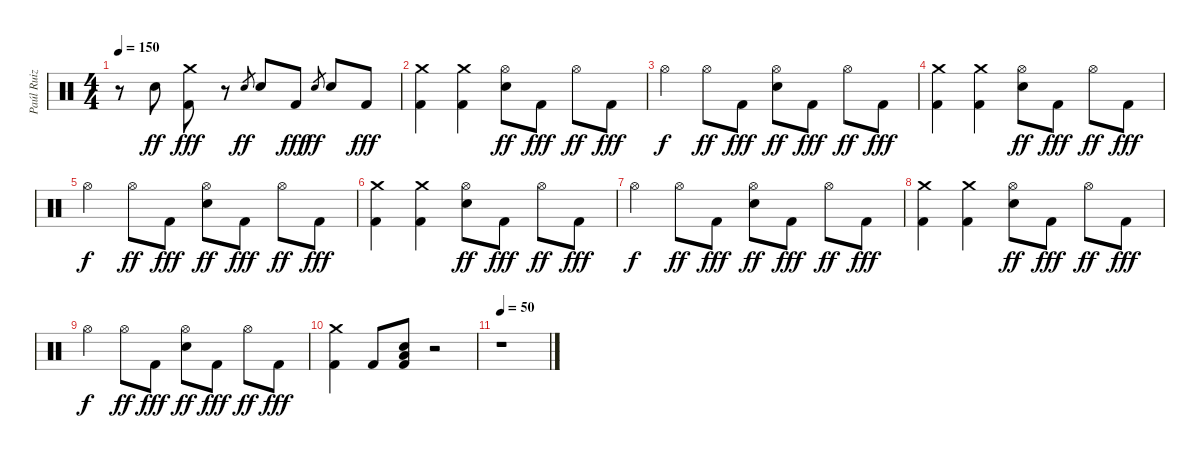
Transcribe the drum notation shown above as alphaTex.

\track ("Paúl Ruiz" "Paúl Ruiz") {instrument percussion}
\staff {score}
\articulation defaults
\ts (4 4)
\tempo 150
\clef neutral
\ks c
r.8{dy fff} "Snare (hit) 2".8{dy ff} ("Crash medium (hit)" "Kick (hit) 2").8{dy fff} r.8 "Snare (hit) 2".8{gr dy ff} "Snare (hit) 2".8 "Kick (hit) 2".8{dy fff} "Snare (hit) 2".8{gr dy ff} "Snare (hit) 2".8 "Kick (hit) 2".8{dy fff} |
("Crash medium (hit)" "Kick (hit) 2").4 ("Crash medium (hit)" "Kick (hit) 2").4 ("Hi-Hat (open)" "Snare (hit) 2").8{dy ff} "Kick (hit) 2".8{dy fff} "Hi-Hat (open)".8{dy ff} "Kick (hit) 2".8{dy fff} |
"Hi-Hat (open)".4{dy f} "Hi-Hat (open)".8{dy ff} "Kick (hit) 2".8{dy fff} ("Hi-Hat (open)" "Snare (hit) 2").8{dy ff} "Kick (hit) 2".8{dy fff} "Hi-Hat (open)".8{dy ff} "Kick (hit) 2".8{dy fff} |
("Crash medium (hit)" "Kick (hit) 2").4 ("Crash medium (hit)" "Kick (hit) 2").4 ("Hi-Hat (open)" "Snare (hit) 2").8{dy ff} "Kick (hit) 2".8{dy fff} "Hi-Hat (open)".8{dy ff} "Kick (hit) 2".8{dy fff} |
"Hi-Hat (open)".4{dy f} "Hi-Hat (open)".8{dy ff} "Kick (hit) 2".8{dy fff} ("Hi-Hat (open)" "Snare (hit) 2").8{dy ff} "Kick (hit) 2".8{dy fff} "Hi-Hat (open)".8{dy ff} "Kick (hit) 2".8{dy fff} |
("Crash medium (hit)" "Kick (hit) 2").4 ("Crash medium (hit)" "Kick (hit) 2").4 ("Hi-Hat (open)" "Snare (hit) 2").8{dy ff} "Kick (hit) 2".8{dy fff} "Hi-Hat (open)".8{dy ff} "Kick (hit) 2".8{dy fff} |
"Hi-Hat (open)".4{dy f} "Hi-Hat (open)".8{dy ff} "Kick (hit) 2".8{dy fff} ("Hi-Hat (open)" "Snare (hit) 2").8{dy ff} "Kick (hit) 2".8{dy fff} "Hi-Hat (open)".8{dy ff} "Kick (hit) 2".8{dy fff} |
("Crash medium (hit)" "Kick (hit) 2").4 ("Crash medium (hit)" "Kick (hit) 2").4 ("Hi-Hat (open)" "Snare (hit) 2").8{dy ff} "Kick (hit) 2".8{dy fff} "Hi-Hat (open)".8{dy ff} "Kick (hit) 2".8{dy fff} |
"Hi-Hat (open)".4{dy f} "Hi-Hat (open)".8{dy ff} "Kick (hit) 2".8{dy fff} ("Hi-Hat (open)" "Snare (hit) 2").8{dy ff} "Kick (hit) 2".8{dy fff} "Hi-Hat (open)".8{dy ff} "Kick (hit) 2".8{dy fff} |
("Crash medium (hit)" "Kick (hit) 2").4 "Kick (hit) 2".8 ("Snare (hit) 2" "Low Tom (hit)" "Kick (hit) 2").8 r.2 |
\tempo 50
r.1
